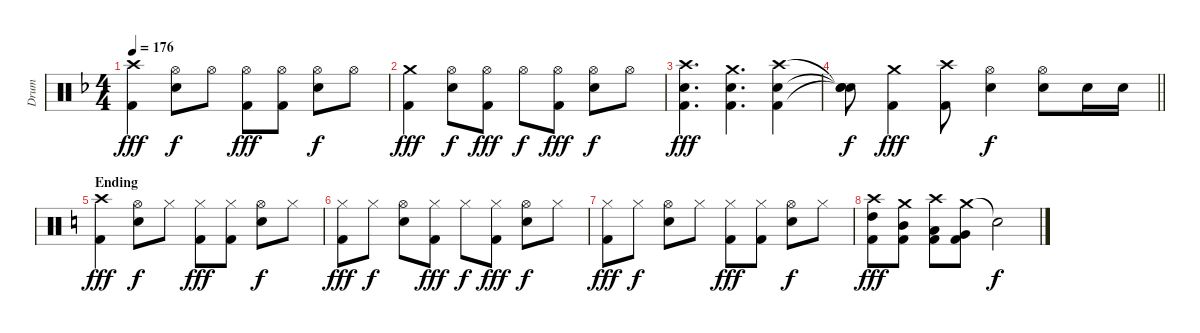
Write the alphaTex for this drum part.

\track ("Drum" "Drum") {instrument percussion}
\staff {score}
\articulation defaults
\ts (4 4)
\tempo 176
\clef neutral
\ks f
("Crash high (hit)" "Kick (hit) 2").4{dy fff} ("Hi-Hat (open)" "Snare (hit) 2").8{dy f} "Hi-Hat (open)".8 ("Hi-Hat (open)" "Kick (hit) 2").8{dy fff} ("Hi-Hat (open)" "Kick (hit) 2").8 ("Hi-Hat (open)" "Snare (hit) 2").8{dy f} "Hi-Hat (open)".8 |
("Crash medium (hit)" "Kick (hit) 2").4{dy fff} ("Hi-Hat (open)" "Snare (hit) 2").8{dy f} ("Hi-Hat (open)" "Kick (hit) 2").8{dy fff} "Hi-Hat (open)".8{dy f} ("Hi-Hat (open)" "Kick (hit) 2").8{dy fff} ("Hi-Hat (open)" "Snare (hit) 2").8{dy f} "Hi-Hat (open)".8 |
("Crash high (hit)" "Snare (hit) 2" "Kick (hit) 2").4{d dy fff} ("Crash medium (hit)" "Snare (hit) 2" "Kick (hit) 2").4{d} ("Crash high (hit)" "Snare (hit) 2" "Kick (hit) 2").4 |
\barLineRight lightlight
("Snare (hit)"{t} "Snare (hit)"{t} "Snare (hit)"{t}).8{dy f} ("Crash medium (hit)" "Kick (hit) 2").4{dy fff} ("Crash high (hit)" "Kick (hit) 2").8 ("Hi-Hat (open)" "Snare (hit) 2").4{dy f} ("Hi-Hat (open)" "Snare (hit) 2").8 "Snare (hit) 2".16 "Snare (hit) 2".16 |
\section ("" "Ending")
\ks c
("Crash high (hit)" "Kick (hit) 2").4{dy fff} ("Hi-Hat (open)" "Snare (hit) 2").8{dy f} "Hi-Hat (closed)".8 ("Hi-Hat (closed)" "Kick (hit) 2").8{dy fff} ("Hi-Hat (closed)" "Kick (hit) 2").8 ("Hi-Hat (open)" "Snare (hit) 2").8{dy f} "Hi-Hat (closed)".8 |
("Hi-Hat (closed)" "Kick (hit) 2").8{dy fff} "Hi-Hat (closed)".8{dy f} ("Hi-Hat (open)" "Snare (hit) 2").8 ("Hi-Hat (closed)" "Kick (hit) 2").8{dy fff} "Hi-Hat (closed)".8{dy f} ("Hi-Hat (closed)" "Kick (hit) 2").8{dy fff} ("Hi-Hat (open)" "Snare (hit) 2").8{dy f} "Hi-Hat (closed)".8 |
("Hi-Hat (closed)" "Kick (hit) 2").8{dy fff} "Hi-Hat (closed)".8{dy f} ("Hi-Hat (open)" "Snare (hit) 2").8 "Hi-Hat (closed)".8 ("Hi-Hat (closed)" "Kick (hit) 2").8{dy fff} ("Hi-Hat (closed)" "Kick (hit) 2").8 ("Hi-Hat (open)" "Snare (hit) 2").8{dy f} "Hi-Hat (closed)".8 |
("Crash high (hit)" "High Tom (hit)" "Kick (hit) 2").8{dy fff} ("Crash medium (hit)" "Mid Tom (hit)" "Kick (hit) 2").8 ("Crash high (hit)" "Low Tom (hit)" "Kick (hit) 2").8 ("Crash medium (hit)" "Very Low Tom (hit)" "Kick (hit) 2").8 "Snare (hit)"{t}.2{dy f}
